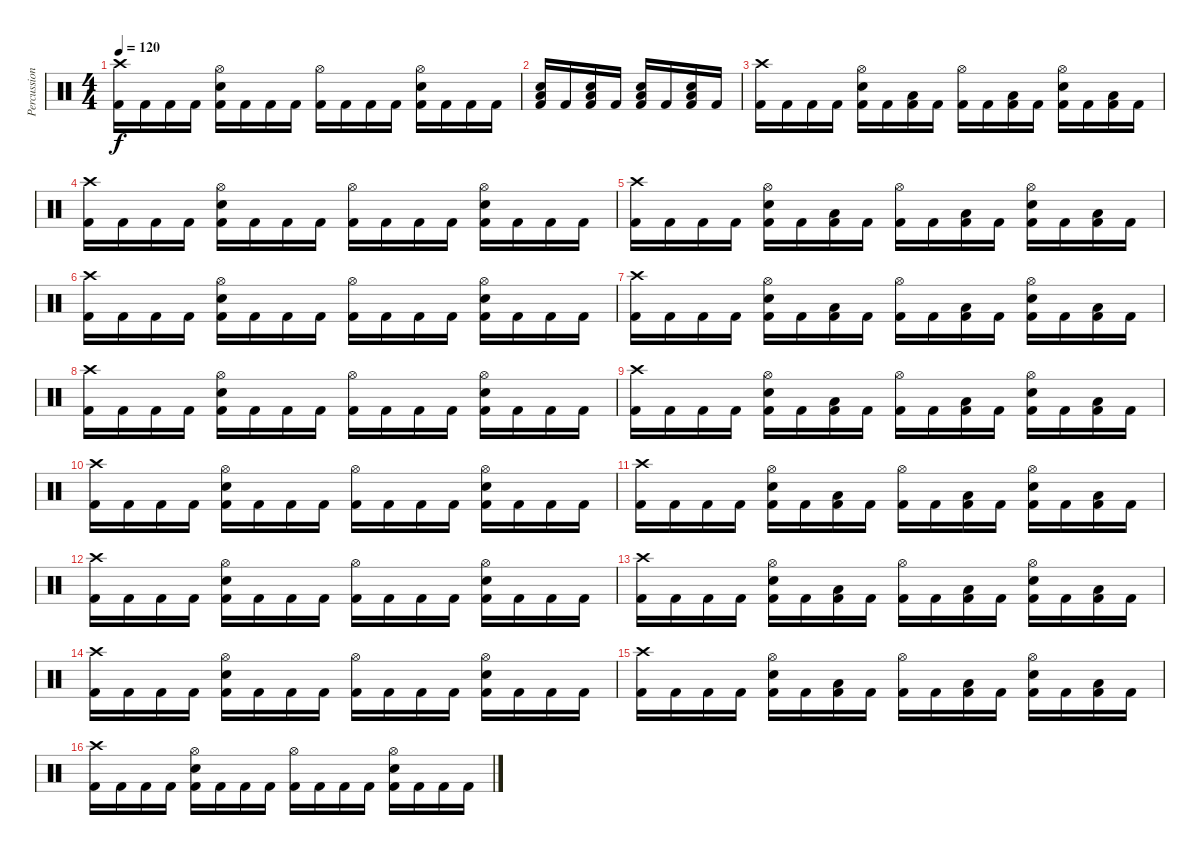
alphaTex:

\track ("Percussion" "Percussion") {instrument percussion}
\staff {score}
\articulation defaults
\ts (4 4)
\tempo 120
\clef neutral
\ks c
("Kick (hit) 2" "Crash high (hit)").16{dy f} "Kick (hit) 2".16 "Kick (hit) 2".16 "Kick (hit) 2".16 ("Kick (hit) 2" "Snare (hit) 2" "Hi-Hat (open)").16 "Kick (hit) 2".16 "Kick (hit) 2".16 "Kick (hit) 2".16 ("Kick (hit) 2" "Hi-Hat (open)").16 "Kick (hit) 2".16 "Kick (hit) 2".16 "Kick (hit) 2".16 ("Kick (hit) 2" "Snare (hit) 2" "Hi-Hat (open)").16 "Kick (hit) 2".16 "Kick (hit) 2".16 "Kick (hit) 2".16 |
("Kick (hit) 2" "Snare (hit) 2" "Low Floor Tom (hit)").16 "Kick (hit) 2".16 ("Kick (hit) 2" "Snare (hit) 2" "Low Floor Tom (hit)").16 "Kick (hit) 2".16 ("Kick (hit) 2" "Snare (hit) 2" "Low Floor Tom (hit)").16 "Kick (hit) 2".16 ("Kick (hit) 2" "Snare (hit) 2" "Low Floor Tom (hit)").16 "Kick (hit) 2".16 |
("Kick (hit) 2" "Crash high (hit)").16 "Kick (hit) 2".16 "Kick (hit) 2".16 "Kick (hit) 2".16 ("Kick (hit) 2" "Snare (hit) 2" "Hi-Hat (open)").16 "Kick (hit) 2".16 ("Kick (hit) 2" "Low Tom (hit)").16 "Kick (hit) 2".16 ("Kick (hit) 2" "Hi-Hat (open)").16 "Kick (hit) 2".16 ("Kick (hit) 2" "Low Tom (hit)").16 "Kick (hit) 2".16 ("Kick (hit) 2" "Snare (hit) 2" "Hi-Hat (open)").16 "Kick (hit) 2".16 ("Kick (hit) 2" "Low Floor Tom (hit)").16 "Kick (hit) 2".16 |
("Kick (hit) 2" "Crash high (hit)").16 "Kick (hit) 2".16 "Kick (hit) 2".16 "Kick (hit) 2".16 ("Kick (hit) 2" "Snare (hit) 2" "Hi-Hat (open)").16 "Kick (hit) 2".16 "Kick (hit) 2".16 "Kick (hit) 2".16 ("Kick (hit) 2" "Hi-Hat (open)").16 "Kick (hit) 2".16 "Kick (hit) 2".16 "Kick (hit) 2".16 ("Kick (hit) 2" "Snare (hit) 2" "Hi-Hat (open)").16 "Kick (hit) 2".16 "Kick (hit) 2".16 "Kick (hit) 2".16 |
("Kick (hit) 2" "Crash high (hit)").16 "Kick (hit) 2".16 "Kick (hit) 2".16 "Kick (hit) 2".16 ("Kick (hit) 2" "Snare (hit) 2" "Hi-Hat (open)").16 "Kick (hit) 2".16 ("Kick (hit) 2" "Low Tom (hit)").16 "Kick (hit) 2".16 ("Kick (hit) 2" "Hi-Hat (open)").16 "Kick (hit) 2".16 ("Kick (hit) 2" "Low Tom (hit)").16 "Kick (hit) 2".16 ("Kick (hit) 2" "Snare (hit) 2" "Hi-Hat (open)").16 "Kick (hit) 2".16 ("Kick (hit) 2" "Low Floor Tom (hit)").16 "Kick (hit) 2".16 |
("Kick (hit) 2" "Crash high (hit)").16 "Kick (hit) 2".16 "Kick (hit) 2".16 "Kick (hit) 2".16 ("Kick (hit) 2" "Snare (hit) 2" "Hi-Hat (open)").16 "Kick (hit) 2".16 "Kick (hit) 2".16 "Kick (hit) 2".16 ("Kick (hit) 2" "Hi-Hat (open)").16 "Kick (hit) 2".16 "Kick (hit) 2".16 "Kick (hit) 2".16 ("Kick (hit) 2" "Snare (hit) 2" "Hi-Hat (open)").16 "Kick (hit) 2".16 "Kick (hit) 2".16 "Kick (hit) 2".16 |
("Kick (hit) 2" "Crash high (hit)").16 "Kick (hit) 2".16 "Kick (hit) 2".16 "Kick (hit) 2".16 ("Kick (hit) 2" "Snare (hit) 2" "Hi-Hat (open)").16 "Kick (hit) 2".16 ("Kick (hit) 2" "Low Tom (hit)").16 "Kick (hit) 2".16 ("Kick (hit) 2" "Hi-Hat (open)").16 "Kick (hit) 2".16 ("Kick (hit) 2" "Low Tom (hit)").16 "Kick (hit) 2".16 ("Kick (hit) 2" "Snare (hit) 2" "Hi-Hat (open)").16 "Kick (hit) 2".16 ("Kick (hit) 2" "Low Floor Tom (hit)").16 "Kick (hit) 2".16 |
("Kick (hit) 2" "Crash high (hit)").16 "Kick (hit) 2".16 "Kick (hit) 2".16 "Kick (hit) 2".16 ("Kick (hit) 2" "Snare (hit) 2" "Hi-Hat (open)").16 "Kick (hit) 2".16 "Kick (hit) 2".16 "Kick (hit) 2".16 ("Kick (hit) 2" "Hi-Hat (open)").16 "Kick (hit) 2".16 "Kick (hit) 2".16 "Kick (hit) 2".16 ("Kick (hit) 2" "Snare (hit) 2" "Hi-Hat (open)").16 "Kick (hit) 2".16 "Kick (hit) 2".16 "Kick (hit) 2".16 |
("Kick (hit) 2" "Crash high (hit)").16 "Kick (hit) 2".16 "Kick (hit) 2".16 "Kick (hit) 2".16 ("Kick (hit) 2" "Snare (hit) 2" "Hi-Hat (open)").16 "Kick (hit) 2".16 ("Kick (hit) 2" "Low Tom (hit)").16 "Kick (hit) 2".16 ("Kick (hit) 2" "Hi-Hat (open)").16 "Kick (hit) 2".16 ("Kick (hit) 2" "Low Tom (hit)").16 "Kick (hit) 2".16 ("Kick (hit) 2" "Snare (hit) 2" "Hi-Hat (open)").16 "Kick (hit) 2".16 ("Kick (hit) 2" "Low Floor Tom (hit)").16 "Kick (hit) 2".16 |
("Kick (hit) 2" "Crash high (hit)").16 "Kick (hit) 2".16 "Kick (hit) 2".16 "Kick (hit) 2".16 ("Kick (hit) 2" "Snare (hit) 2" "Hi-Hat (open)").16 "Kick (hit) 2".16 "Kick (hit) 2".16 "Kick (hit) 2".16 ("Kick (hit) 2" "Hi-Hat (open)").16 "Kick (hit) 2".16 "Kick (hit) 2".16 "Kick (hit) 2".16 ("Kick (hit) 2" "Snare (hit) 2" "Hi-Hat (open)").16 "Kick (hit) 2".16 "Kick (hit) 2".16 "Kick (hit) 2".16 |
("Kick (hit) 2" "Crash high (hit)").16 "Kick (hit) 2".16 "Kick (hit) 2".16 "Kick (hit) 2".16 ("Kick (hit) 2" "Snare (hit) 2" "Hi-Hat (open)").16 "Kick (hit) 2".16 ("Kick (hit) 2" "Low Tom (hit)").16 "Kick (hit) 2".16 ("Kick (hit) 2" "Hi-Hat (open)").16 "Kick (hit) 2".16 ("Kick (hit) 2" "Low Tom (hit)").16 "Kick (hit) 2".16 ("Kick (hit) 2" "Snare (hit) 2" "Hi-Hat (open)").16 "Kick (hit) 2".16 ("Kick (hit) 2" "Low Floor Tom (hit)").16 "Kick (hit) 2".16 |
("Kick (hit) 2" "Crash high (hit)").16 "Kick (hit) 2".16 "Kick (hit) 2".16 "Kick (hit) 2".16 ("Kick (hit) 2" "Snare (hit) 2" "Hi-Hat (open)").16 "Kick (hit) 2".16 "Kick (hit) 2".16 "Kick (hit) 2".16 ("Kick (hit) 2" "Hi-Hat (open)").16 "Kick (hit) 2".16 "Kick (hit) 2".16 "Kick (hit) 2".16 ("Kick (hit) 2" "Snare (hit) 2" "Hi-Hat (open)").16 "Kick (hit) 2".16 "Kick (hit) 2".16 "Kick (hit) 2".16 |
("Kick (hit) 2" "Crash high (hit)").16 "Kick (hit) 2".16 "Kick (hit) 2".16 "Kick (hit) 2".16 ("Kick (hit) 2" "Snare (hit) 2" "Hi-Hat (open)").16 "Kick (hit) 2".16 ("Kick (hit) 2" "Low Tom (hit)").16 "Kick (hit) 2".16 ("Kick (hit) 2" "Hi-Hat (open)").16 "Kick (hit) 2".16 ("Kick (hit) 2" "Low Tom (hit)").16 "Kick (hit) 2".16 ("Kick (hit) 2" "Snare (hit) 2" "Hi-Hat (open)").16 "Kick (hit) 2".16 ("Kick (hit) 2" "Low Floor Tom (hit)").16 "Kick (hit) 2".16 |
("Kick (hit) 2" "Crash high (hit)").16 "Kick (hit) 2".16 "Kick (hit) 2".16 "Kick (hit) 2".16 ("Kick (hit) 2" "Snare (hit) 2" "Hi-Hat (open)").16 "Kick (hit) 2".16 "Kick (hit) 2".16 "Kick (hit) 2".16 ("Kick (hit) 2" "Hi-Hat (open)").16 "Kick (hit) 2".16 "Kick (hit) 2".16 "Kick (hit) 2".16 ("Kick (hit) 2" "Snare (hit) 2" "Hi-Hat (open)").16 "Kick (hit) 2".16 "Kick (hit) 2".16 "Kick (hit) 2".16 |
("Kick (hit) 2" "Crash high (hit)").16 "Kick (hit) 2".16 "Kick (hit) 2".16 "Kick (hit) 2".16 ("Kick (hit) 2" "Snare (hit) 2" "Hi-Hat (open)").16 "Kick (hit) 2".16 ("Kick (hit) 2" "Low Tom (hit)").16 "Kick (hit) 2".16 ("Kick (hit) 2" "Hi-Hat (open)").16 "Kick (hit) 2".16 ("Kick (hit) 2" "Low Tom (hit)").16 "Kick (hit) 2".16 ("Kick (hit) 2" "Snare (hit) 2" "Hi-Hat (open)").16 "Kick (hit) 2".16 ("Kick (hit) 2" "Low Floor Tom (hit)").16 "Kick (hit) 2".16 |
("Kick (hit) 2" "Crash high (hit)").16 "Kick (hit) 2".16 "Kick (hit) 2".16 "Kick (hit) 2".16 ("Kick (hit) 2" "Snare (hit) 2" "Hi-Hat (open)").16 "Kick (hit) 2".16 "Kick (hit) 2".16 "Kick (hit) 2".16 ("Kick (hit) 2" "Hi-Hat (open)").16 "Kick (hit) 2".16 "Kick (hit) 2".16 "Kick (hit) 2".16 ("Kick (hit) 2" "Snare (hit) 2" "Hi-Hat (open)").16 "Kick (hit) 2".16 "Kick (hit) 2".16 "Kick (hit) 2".16
